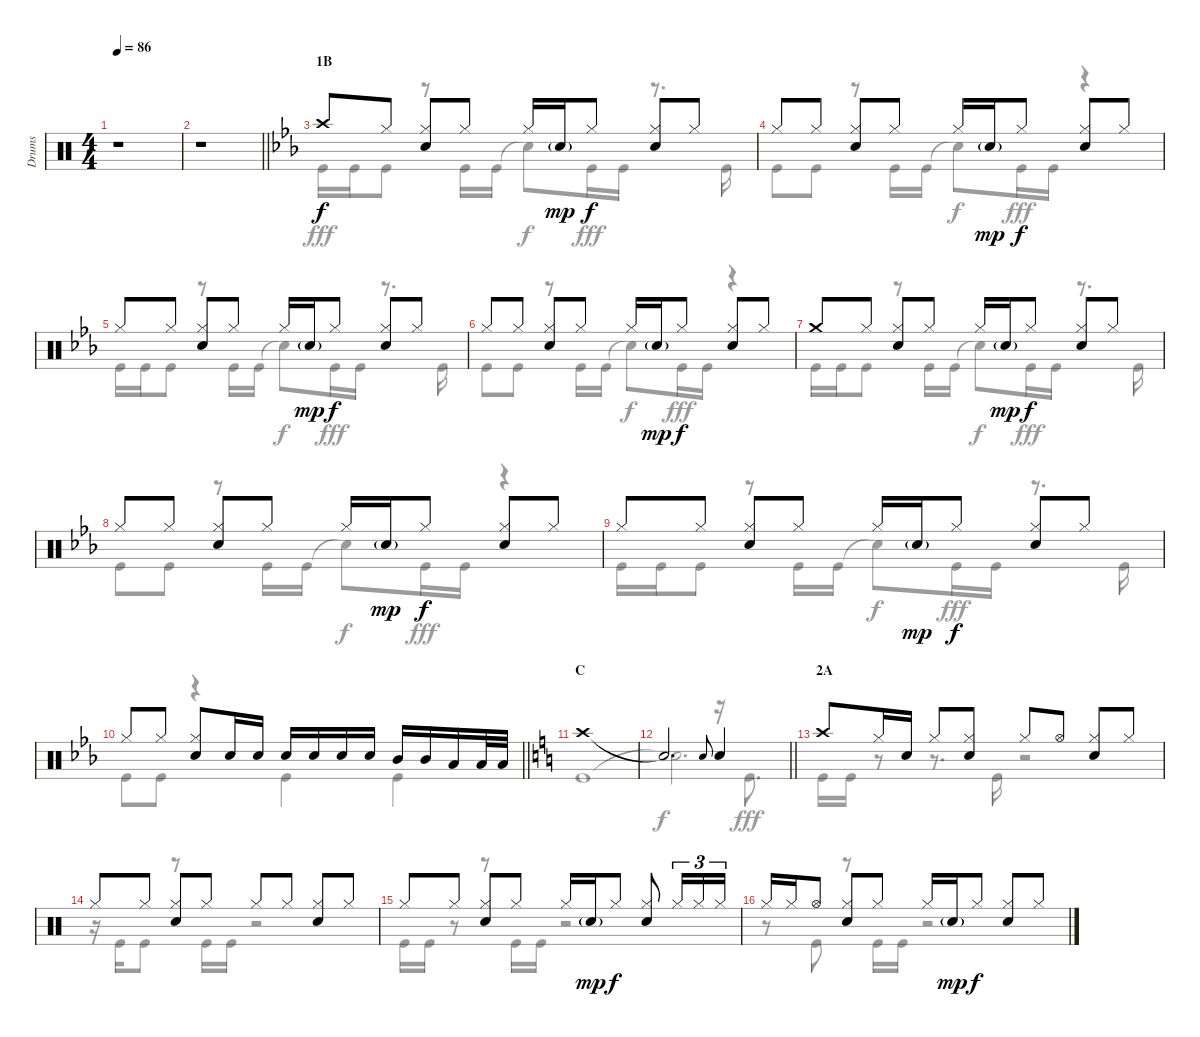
\track ("Drums" "Drums") {instrument percussion}
\staff {score}
\articulation defaults
\voice
\ts (4 4)
\tempo 86
\clef neutral
\ks c
r.1{dy f} |
\barLineRight lightlight
r.1 |
\section ("" "1B")
\ks eb "Crash high (hit)".8 "Hi-Hat (closed)".8
("Hi-Hat (closed)" "Snare (hit) 2").8 "Hi-Hat (closed)".8 "Hi-Hat (closed)".16 "Snare (hit) 2"{g}.16{dy mp} "Hi-Hat (closed)".8{dy f} ("Hi-Hat (closed)" "Snare (hit) 2").8 "Hi-Hat (closed)".8 |
"Hi-Hat (closed)".8 "Hi-Hat (closed)".8 ("Hi-Hat (closed)" "Snare (hit) 2").8 "Hi-Hat (closed)".8 "Hi-Hat (closed)".16 "Snare (hit) 2"{g}.16{dy mp} "Hi-Hat (closed)".8{dy f} ("Hi-Hat (closed)" "Snare (hit) 2").8 "Hi-Hat (closed)".8 |
"Hi-Hat (closed)".8 "Hi-Hat (closed)".8 ("Hi-Hat (closed)" "Snare (hit) 2").8 "Hi-Hat (closed)".8 "Hi-Hat (closed)".16 "Snare (hit) 2"{g}.16{dy mp} "Hi-Hat (closed)".8{dy f} ("Hi-Hat (closed)" "Snare (hit) 2").8 "Hi-Hat (closed)".8 |
"Hi-Hat (closed)".8 "Hi-Hat (closed)".8 ("Hi-Hat (closed)" "Snare (hit) 2").8 "Hi-Hat (closed)".8 "Hi-Hat (closed)".16 "Snare (hit) 2"{g}.16{dy mp} "Hi-Hat (closed)".8{dy f} ("Hi-Hat (closed)" "Snare (hit) 2").8 "Hi-Hat (closed)".8 |
"Crash medium (hit)".8 "Hi-Hat (closed)".8 ("Hi-Hat (closed)" "Snare (hit) 2").8 "Hi-Hat (closed)".8 "Hi-Hat (closed)".16 "Snare (hit) 2"{g}.16{dy mp} "Hi-Hat (closed)".8{dy f} ("Hi-Hat (closed)" "Snare (hit) 2").8 "Hi-Hat (closed)".8 |
"Hi-Hat (closed)".8 "Hi-Hat (closed)".8 ("Hi-Hat (closed)" "Snare (hit) 2").8 "Hi-Hat (closed)".8 "Hi-Hat (closed)".16 "Snare (hit) 2"{g}.16{dy mp} "Hi-Hat (closed)".8{dy f} ("Hi-Hat (closed)" "Snare (hit) 2").8 "Hi-Hat (closed)".8 |
"Hi-Hat (closed)".8 "Hi-Hat (closed)".8 ("Hi-Hat (closed)" "Snare (hit) 2").8 "Hi-Hat (closed)".8 "Hi-Hat (closed)".16 "Snare (hit) 2"{g}.16{dy mp} "Hi-Hat (closed)".8{dy f} ("Hi-Hat (closed)" "Snare (hit) 2").8 "Hi-Hat (closed)".8 |
\barLineRight lightlight "Hi-Hat (closed)".8 "Hi-Hat (closed)".8
("Hi-Hat (closed)" "Snare (hit) 2").8 "Snare (hit) 2".16 "Snare (hit) 2".16 "Snare (hit) 2".16 "Snare (hit) 2".16 "Snare (hit) 2".16 "Snare (hit) 2".16 "Mid Tom (hit)".16 "Mid Tom (hit)".16 "Low Tom (hit)".16 "Low Tom (hit)".32 "Low Tom (hit)".32 |
\section ("" "C")
\ks c "Crash high (hit)".1
|
\barLineRight lightlight "Snare (hit)"{t}.2{d} "Snare (hit) 2".8{gr onbeat} "Snare (hit) 2".4
|
\section ("" "2A")
"Crash high (hit)".8 "Hi-Hat (closed)".16 "Snare (hit) 2".16 "Hi-Hat (closed)".8 ("Hi-Hat (closed)" "Snare (hit) 2").8 "Hi-Hat (closed)".8 "Hi-Hat (open)".8 ("Hi-Hat (closed)" "Snare (hit) 2").8 "Hi-Hat (closed)".8 |
"Hi-Hat (closed)".8 "Hi-Hat (closed)".8 ("Hi-Hat (closed)" "Snare (hit) 2").8 "Hi-Hat (closed)".8 "Hi-Hat (closed)".8 "Hi-Hat (closed)".8 ("Hi-Hat (closed)" "Snare (hit) 2").8 "Hi-Hat (closed)".8 |
"Hi-Hat (closed)".8 "Hi-Hat (closed)".8 ("Hi-Hat (closed)" "Snare (hit) 2").8 "Hi-Hat (closed)".8 "Hi-Hat (closed)".16 "Snare (hit) 2"{g}.16{dy mp} "Hi-Hat (closed)".8{dy f} ("Hi-Hat (closed)" "Snare (hit) 2").8 "Hi-Hat (closed)".16{tu (3 2)} "Hi-Hat (closed)".16{tu (3 2)} "Hi-Hat (closed)".16{tu (3 2)} |
"Hi-Hat (closed)".16 "Hi-Hat (closed)".16 "Hi-Hat (open)".8 ("Hi-Hat (closed)" "Snare (hit) 2").8 "Hi-Hat (closed)".8 "Hi-Hat (closed)".16 "Snare (hit) 2"{g}.16{dy mp} "Hi-Hat (closed)".8{dy f} ("Hi-Hat (closed)" "Snare (hit) 2").8 "Hi-Hat (closed)".8
\voice
\clef neutral
\ottava regular
\simile none
\ks c
r.1{dy fff} |
\barLineRight lightlight
r.1 |
\ks eb "Kick (hit)".16 "Kick (hit)".16 "Kick (hit)".8
r.8 "Kick (hit)".16 "Kick (hit)".16 "Snare (hit)"{t}.8{dy f} "Kick (hit)".16{dy fff} "Kick (hit)".16 r.8{d} "Kick (hit)".16 |
"Kick (hit)".8 "Kick (hit)".8 r.8 "Kick (hit)".16 "Kick (hit)".16 "Snare (hit)"{t}.8{dy f} "Kick (hit)".16{dy fff} "Kick (hit)".16 r.4 |
"Kick (hit)".16 "Kick (hit)".16 "Kick (hit)".8 r.8 "Kick (hit)".16 "Kick (hit)".16 "Snare (hit)"{t}.8{dy f} "Kick (hit)".16{dy fff} "Kick (hit)".16 r.8{d} "Kick (hit)".16 |
"Kick (hit)".8 "Kick (hit)".8 r.8 "Kick (hit)".16 "Kick (hit)".16 "Snare (hit)"{t}.8{dy f} "Kick (hit)".16{dy fff} "Kick (hit)".16 r.4 |
"Kick (hit)".16 "Kick (hit)".16 "Kick (hit)".8 r.8 "Kick (hit)".16 "Kick (hit)".16 "Snare (hit)"{t}.8{dy f} "Kick (hit)".16{dy fff} "Kick (hit)".16 r.8{d} "Kick (hit)".16 |
"Kick (hit)".8 "Kick (hit)".8 r.8 "Kick (hit)".16 "Kick (hit)".16 "Snare (hit)"{t}.8{dy f} "Kick (hit)".16{dy fff} "Kick (hit)".16 r.4 |
"Kick (hit)".16 "Kick (hit)".16 "Kick (hit)".8 r.8 "Kick (hit)".16 "Kick (hit)".16 "Snare (hit)"{t}.8{dy f} "Kick (hit)".16{dy fff} "Kick (hit)".16 r.8{d} "Kick (hit)".16 |
\barLineRight lightlight "Kick (hit)".8 "Kick (hit)".8
r.4 "Kick (hit)".4 "Kick (hit)".4 |
\ks c "Kick (hit)".1
|
\barLineRight lightlight "Snare (hit)"{t}.2{d dy f}
r.16 "Kick (hit)".8{d dy fff} |
"Kick (hit)".16 "Kick (hit)".16 r.8 r.8{d} "Kick (hit)".16 r.2 |
r.16 "Kick (hit)".16 "Kick (hit)".8 r.8 "Kick (hit)".16 "Kick (hit)".16 r.2 |
"Kick (hit)".16 "Kick (hit)".16 r.8 r.8 "Kick (hit)".16 "Kick (hit)".16 r.2 |
r.8 "Kick (hit)".8 r.8 "Kick (hit)".16 "Kick (hit)".16 r.2
